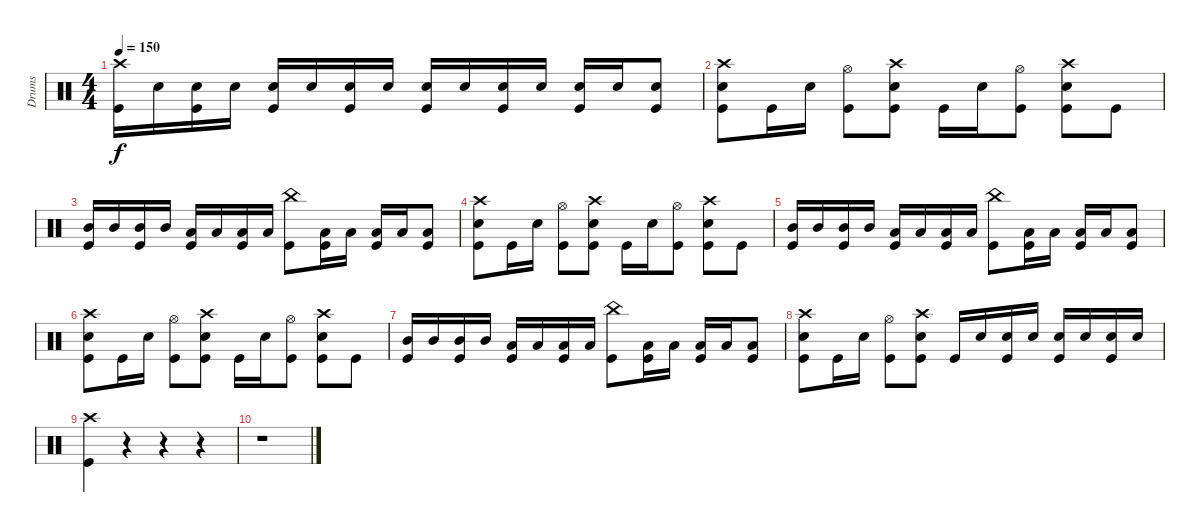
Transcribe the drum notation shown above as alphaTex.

\track ("Drums" "Drums") {instrument percussion}
\staff {score}
\articulation defaults
\ts (4 4)
\tempo 150
\clef neutral
\ks c
("Crash high (hit)" "Kick (hit)").16{dy f} "Snare (hit) 2".16 ("Snare (hit) 2" "Kick (hit)").16 "Snare (hit) 2".16 ("Snare (hit) 2" "Kick (hit)").16 "Snare (hit) 2".16 ("Snare (hit) 2" "Kick (hit)").16 "Snare (hit) 2".16 ("Snare (hit) 2" "Kick (hit)").16 "Snare (hit) 2".16 ("Snare (hit) 2" "Kick (hit)").16 "Snare (hit) 2".16 ("Snare (hit) 2" "Kick (hit)").16 "Snare (hit) 2".16 ("Snare (hit) 2" "Kick (hit)").8 |
("Crash high (hit)" "Snare (hit) 2" "Kick (hit)").8 "Kick (hit)".16 "Snare (hit) 2".16 ("Hi-Hat (open)" "Kick (hit)").8 ("Crash high (hit)" "Snare (hit) 2" "Kick (hit)").8 "Kick (hit)".16 "Snare (hit) 2".16 ("Hi-Hat (open)" "Kick (hit)").8 ("Crash high (hit)" "Snare (hit) 2" "Kick (hit)").8 "Kick (hit)".8 |
("Mid Tom (hit)" "Kick (hit)").16 "Mid Tom (hit)".16 ("Mid Tom (hit)" "Kick (hit)").16 "Mid Tom (hit)".16 ("Low Tom (hit)" "Kick (hit)").16 "Low Tom (hit)".16 ("Low Tom (hit)" "Kick (hit)").16 "Low Tom (hit)".16 ("China (hit)" "Kick (hit)").8 ("Low Floor Tom (hit)" "Kick (hit)").16 "Low Floor Tom (hit)".16 ("Low Floor Tom (hit)" "Kick (hit)").16 "Low Floor Tom (hit)".16 ("Low Floor Tom (hit)" "Kick (hit)").8 |
("Crash high (hit)" "Snare (hit) 2" "Kick (hit)").8 "Kick (hit)".16 "Snare (hit) 2".16 ("Hi-Hat (open)" "Kick (hit)").8 ("Crash high (hit)" "Snare (hit) 2" "Kick (hit)").8 "Kick (hit)".16 "Snare (hit) 2".16 ("Hi-Hat (open)" "Kick (hit)").8 ("Crash high (hit)" "Snare (hit) 2" "Kick (hit)").8 "Kick (hit)".8 |
("Mid Tom (hit)" "Kick (hit)").16 "Mid Tom (hit)".16 ("Mid Tom (hit)" "Kick (hit)").16 "Mid Tom (hit)".16 ("Low Tom (hit)" "Kick (hit)").16 "Low Tom (hit)".16 ("Low Tom (hit)" "Kick (hit)").16 "Low Tom (hit)".16 ("China (hit)" "Kick (hit)").8 ("Low Floor Tom (hit)" "Kick (hit)").16 "Low Floor Tom (hit)".16 ("Low Floor Tom (hit)" "Kick (hit)").16 "Low Floor Tom (hit)".16 ("Low Floor Tom (hit)" "Kick (hit)").8 |
("Crash high (hit)" "Snare (hit) 2" "Kick (hit)").8 "Kick (hit)".16 "Snare (hit) 2".16 ("Hi-Hat (open)" "Kick (hit)").8 ("Crash high (hit)" "Snare (hit) 2" "Kick (hit)").8 "Kick (hit)".16 "Snare (hit) 2".16 ("Hi-Hat (open)" "Kick (hit)").8 ("Crash high (hit)" "Snare (hit) 2" "Kick (hit)").8 "Kick (hit)".8 |
("Mid Tom (hit)" "Kick (hit)").16 "Mid Tom (hit)".16 ("Mid Tom (hit)" "Kick (hit)").16 "Mid Tom (hit)".16 ("Low Tom (hit)" "Kick (hit)").16 "Low Tom (hit)".16 ("Low Tom (hit)" "Kick (hit)").16 "Low Tom (hit)".16 ("China (hit)" "Kick (hit)").8 ("Low Floor Tom (hit)" "Kick (hit)").16 "Low Floor Tom (hit)".16 ("Low Floor Tom (hit)" "Kick (hit)").16 "Low Floor Tom (hit)".16 ("Low Floor Tom (hit)" "Kick (hit)").8 |
("Crash high (hit)" "Snare (hit) 2" "Kick (hit)").8 "Kick (hit)".16 "Snare (hit) 2".16 ("Hi-Hat (open)" "Kick (hit)").8 ("Crash high (hit)" "Snare (hit) 2" "Kick (hit)").8 "Kick (hit)".16 "Snare (hit) 2".16 ("Snare (hit) 2" "Kick (hit)").16 "Snare (hit) 2".16 ("Snare (hit) 2" "Kick (hit)").16 "Snare (hit) 2".16 ("Snare (hit) 2" "Kick (hit)").16 "Snare (hit) 2".16 |
("Crash high (hit)" "Kick (hit)").4 r.4 r.4 r.4 |
r.1
